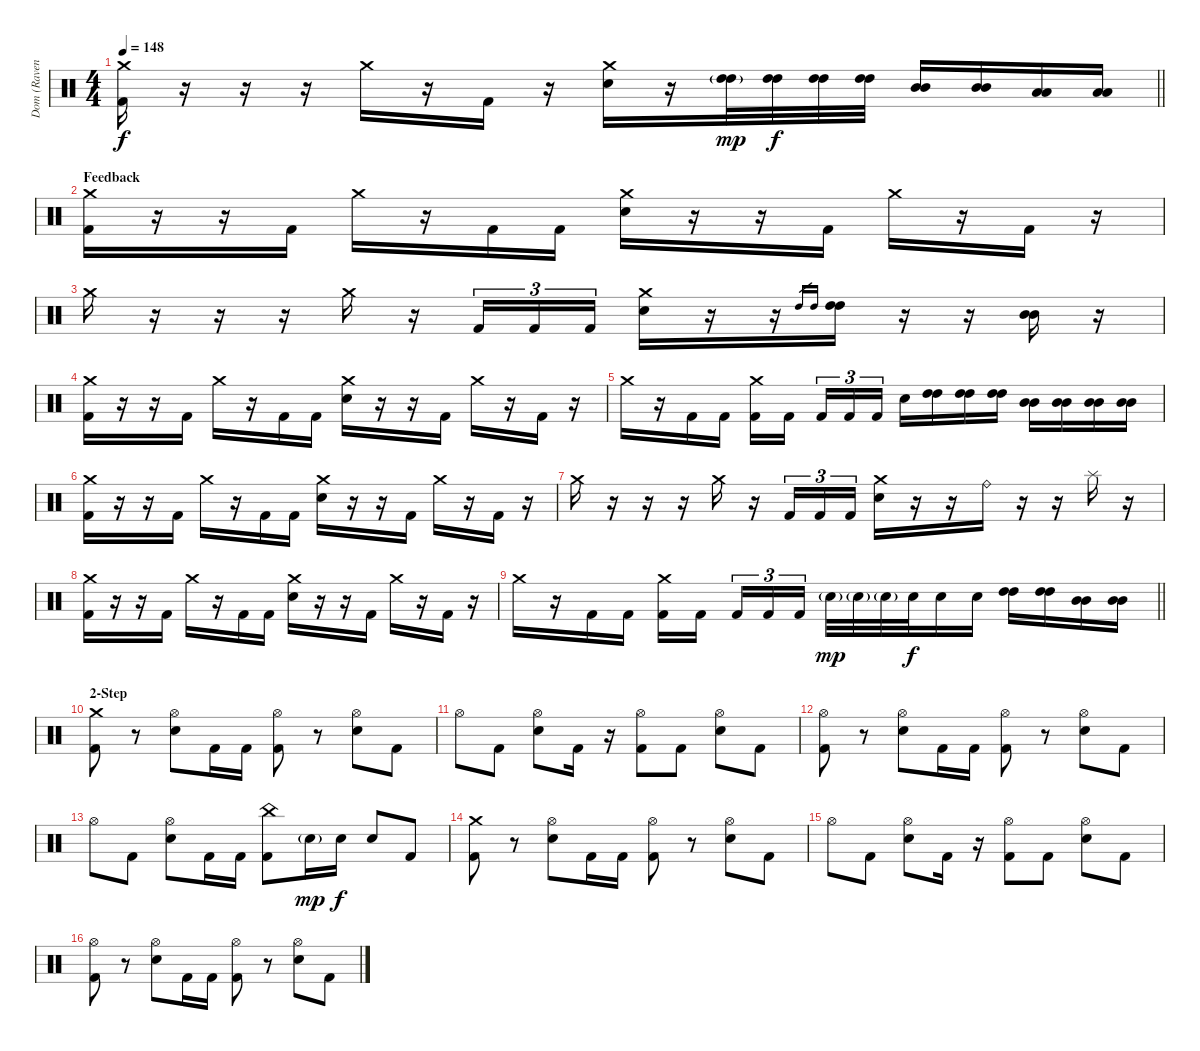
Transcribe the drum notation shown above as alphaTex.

\track ("Dom (Ravenface)" "Dom (Raven") {instrument percussion}
\staff {score}
\articulation defaults
\ts (4 4)
\tempo 148
\clef neutral
\barLineRight lightlight
\ks c
("Crash medium (hit)" "Kick (hit) 2").16{dy f} r.16 r.16 r.16 "Crash medium (hit)".16 r.16 "Kick (hit) 2".16 r.16 ("Crash medium (hit)" "Electric Snare (hit)").16 r.16 ("High Tom (hit)"{g} "High Tom (hit)"{g}).32{dy mp} ("High Tom (hit)" "High Tom (hit)").32{dy f} ("High Tom (hit)" "High Tom (hit)").32 ("High Tom (hit)" "High Tom (hit)").32 ("Mid Tom (hit)" "Mid Tom (hit)").16 ("Mid Tom (hit)" "Mid Tom (hit)").16 ("Low Tom (hit)" "Low Tom (hit)").16 ("Low Tom (hit)" "Low Tom (hit)").16 |
\section ("" "Feedback")
("Crash medium (hit)" "Kick (hit) 2").16 r.16 r.16 "Kick (hit) 2".16 "Crash medium (hit)".16 r.16 "Kick (hit) 2".16 "Kick (hit) 2".16 ("Crash medium (hit)" "Electric Snare (hit)").16 r.16 r.16 "Kick (hit) 2".16 "Crash medium (hit)".16 r.16 "Kick (hit) 2".16 r.16 |
"Crash medium (hit)".16 r.16 r.16 r.16 "Crash medium (hit)".16 r.16 "Kick (hit) 2".16{tu (3 2)} "Kick (hit) 2".16{tu (3 2)} "Kick (hit) 2".16{tu (3 2)} ("Crash medium (hit)" "Electric Snare (hit)").16 r.16 r.16 "High Tom (hit)".16{gr} "High Tom (hit)".16{gr} ("High Tom (hit)" "High Tom (hit)").16 r.16 r.16 ("Mid Tom (hit)" "Mid Tom (hit)").16 r.16 |
("Crash medium (hit)" "Kick (hit) 2").16 r.16 r.16 "Kick (hit) 2".16 "Crash medium (hit)".16 r.16 "Kick (hit) 2".16 "Kick (hit) 2".16 ("Crash medium (hit)" "Electric Snare (hit)").16 r.16 r.16 "Kick (hit) 2".16 "Crash medium (hit)".16 r.16 "Kick (hit) 2".16 r.16 |
"Crash medium (hit)".16 r.16 "Kick (hit) 2".16 "Kick (hit) 2".16 ("Crash medium (hit)" "Kick (hit) 2").16 "Kick (hit) 2".16{beam splitsecondary} "Kick (hit) 2".16{tu (3 2)} "Kick (hit) 2".16{tu (3 2)} "Kick (hit) 2".16{tu (3 2)} "Electric Snare (hit)".16 ("High Tom (hit)" "High Tom (hit)").16 ("High Tom (hit)" "High Tom (hit)").16 ("High Tom (hit)" "High Tom (hit)").16 ("Mid Tom (hit)" "Mid Tom (hit)").16 ("Mid Tom (hit)" "Mid Tom (hit)").16 ("Mid Tom (hit)" "Mid Tom (hit)").16 ("Mid Tom (hit)" "Mid Tom (hit)").16 |
("Crash medium (hit)" "Kick (hit) 2").16 r.16 r.16 "Kick (hit) 2".16 "Crash medium (hit)".16 r.16 "Kick (hit) 2".16 "Kick (hit) 2".16 ("Crash medium (hit)" "Electric Snare (hit)").16 r.16 r.16 "Kick (hit) 2".16 "Crash medium (hit)".16 r.16 "Kick (hit) 2".16 r.16 |
"Crash medium (hit)".16 r.16 r.16 r.16 "Crash medium (hit)".16 r.16 "Kick (hit) 2".16{tu (3 2)} "Kick (hit) 2".16{tu (3 2)} "Kick (hit) 2".16{tu (3 2)} ("Crash medium (hit)" "Electric Snare (hit)").16 r.16 r.16 "Ride (bell)".16 r.16 r.16 "Splash (hit)".16 r.16 |
("Crash medium (hit)" "Kick (hit) 2").16 r.16 r.16 "Kick (hit) 2".16 "Crash medium (hit)".16 r.16 "Kick (hit) 2".16 "Kick (hit) 2".16 ("Crash medium (hit)" "Electric Snare (hit)").16 r.16 r.16 "Kick (hit) 2".16 "Crash medium (hit)".16 r.16 "Kick (hit) 2".16 r.16 |
\barLineRight lightlight "Crash medium (hit)".16
r.16 "Kick (hit) 2".16 "Kick (hit) 2".16 ("Crash medium (hit)" "Kick (hit) 2").16 "Kick (hit) 2".16{beam splitsecondary} "Kick (hit) 2".16{tu (3 2)} "Kick (hit) 2".16{tu (3 2)} "Kick (hit) 2".16{tu (3 2)} "Electric Snare (hit)"{g}.32{dy mp} "Electric Snare (hit)"{g}.32 "Electric Snare (hit)"{g}.32 "Electric Snare (hit)".32{dy f} "Electric Snare (hit)".16 "Electric Snare (hit)".16 ("High Tom (hit)" "High Tom (hit)").16 ("High Tom (hit)" "High Tom (hit)").16 ("Mid Tom (hit)" "Mid Tom (hit)").16 ("Mid Tom (hit)" "Mid Tom (hit)").16 |
\section ("" "2-Step")
("Crash medium (hit)" "Kick (hit) 2").8 r.8 ("Hi-Hat (open)" "Electric Snare (hit)").8 "Kick (hit) 2".16 "Kick (hit) 2".16 ("Hi-Hat (open)" "Kick (hit) 2").8 r.8 ("Hi-Hat (open)" "Electric Snare (hit)").8 "Kick (hit) 2".8 |
"Hi-Hat (open)".8 "Kick (hit) 2".8 ("Hi-Hat (open)" "Electric Snare (hit)").8 "Kick (hit) 2".16 r.16 ("Hi-Hat (open)" "Kick (hit) 2").8 "Kick (hit) 2".8 ("Hi-Hat (open)" "Electric Snare (hit)").8 "Kick (hit) 2".8 |
("Hi-Hat (open)" "Kick (hit) 2").8 r.8 ("Hi-Hat (open)" "Electric Snare (hit)").8 "Kick (hit) 2".16 "Kick (hit) 2".16 ("Hi-Hat (open)" "Kick (hit) 2").8 r.8 ("Hi-Hat (open)" "Electric Snare (hit)").8 "Kick (hit) 2".8 |
"Hi-Hat (open)".8 "Kick (hit) 2".8 ("Hi-Hat (open)" "Electric Snare (hit)").8 "Kick (hit) 2".16 "Kick (hit) 2".16 ("China (hit)" "Kick (hit) 2").8 "Electric Snare (hit)"{g}.16{dy mp} "Electric Snare (hit)".16{dy f} "Electric Snare (hit)".8 "Kick (hit) 2".8 |
("Crash medium (hit)" "Kick (hit) 2").8 r.8 ("Hi-Hat (open)" "Electric Snare (hit)").8 "Kick (hit) 2".16 "Kick (hit) 2".16 ("Hi-Hat (open)" "Kick (hit) 2").8 r.8 ("Hi-Hat (open)" "Electric Snare (hit)").8 "Kick (hit) 2".8 |
"Hi-Hat (open)".8 "Kick (hit) 2".8 ("Hi-Hat (open)" "Electric Snare (hit)").8 "Kick (hit) 2".16 r.16 ("Hi-Hat (open)" "Kick (hit) 2").8 "Kick (hit) 2".8 ("Hi-Hat (open)" "Electric Snare (hit)").8 "Kick (hit) 2".8 |
("Hi-Hat (open)" "Kick (hit) 2").8 r.8 ("Hi-Hat (open)" "Electric Snare (hit)").8 "Kick (hit) 2".16 "Kick (hit) 2".16 ("Hi-Hat (open)" "Kick (hit) 2").8 r.8 ("Hi-Hat (open)" "Electric Snare (hit)").8 "Kick (hit) 2".8
